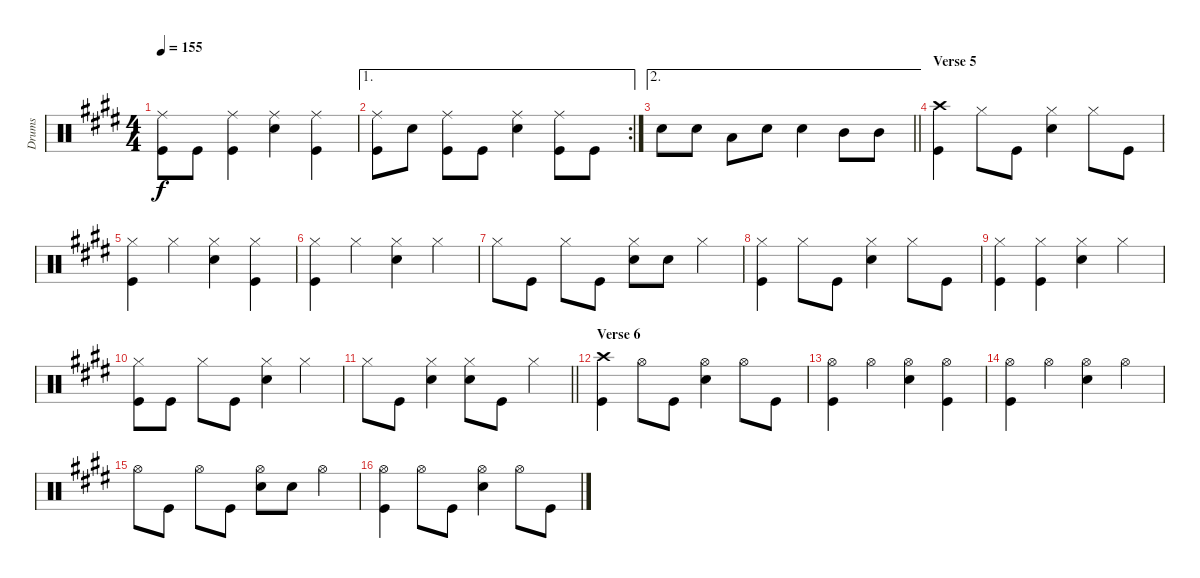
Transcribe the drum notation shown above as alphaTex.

\track ("Drums" "Drums") {instrument percussion}
\staff {score}
\articulation defaults
\ts (4 4)
\tempo 155
\clef neutral
\ks e
("Ride (middle)" "Kick (hit)").8{dy f} "Kick (hit)".8 ("Ride (middle)" "Kick (hit)").4 ("Ride (middle)" "Snare (hit) 2").4 ("Ride (middle)" "Kick (hit)").4 |
\ae 1
\rc 2
("Ride (middle)" "Kick (hit)").8 "Snare (hit) 2".8 ("Ride (middle)" "Kick (hit)").8 "Kick (hit)".8 ("Ride (middle)" "Snare (hit) 2").4 ("Ride (middle)" "Kick (hit)").8 "Kick (hit)".8 |
\ae 2
\barLineRight lightlight "Snare (hit) 2".8 "Snare (hit) 2".8 "Low Tom (hit)".8 "Snare (hit) 2".8 "Snare (hit) 2".4 "Mid Tom (hit)".8 "Mid Tom (hit)".8
|
\section ("" "Verse 5")
("Crash high (hit)" "Kick (hit)").4 "Hi-Hat (closed)".8 "Kick (hit)".8 ("Hi-Hat (closed)" "Snare (hit) 2").4 "Hi-Hat (closed)".8 "Kick (hit)".8 |
("Hi-Hat (closed)" "Kick (hit)").4 "Hi-Hat (closed)".4 ("Hi-Hat (closed)" "Snare (hit) 2").4 ("Hi-Hat (closed)" "Kick (hit)").4 |
("Hi-Hat (closed)" "Kick (hit)").4 "Hi-Hat (closed)".4 ("Hi-Hat (closed)" "Snare (hit) 2").4 "Hi-Hat (closed)".4 |
"Hi-Hat (closed)".8 "Kick (hit)".8 "Hi-Hat (closed)".8 "Kick (hit)".8 ("Hi-Hat (closed)" "Snare (hit) 2").8 "Snare (hit) 2".8 "Hi-Hat (closed)".4 |
("Hi-Hat (closed)" "Kick (hit)").4 "Hi-Hat (closed)".8 "Kick (hit)".8 ("Hi-Hat (closed)" "Snare (hit) 2").4 "Hi-Hat (closed)".8 "Kick (hit)".8 |
("Hi-Hat (closed)" "Kick (hit)").4 ("Hi-Hat (closed)" "Kick (hit)").4 ("Hi-Hat (closed)" "Snare (hit) 2").4 "Hi-Hat (closed)".4 |
("Hi-Hat (closed)" "Kick (hit)").8 "Kick (hit)".8 "Hi-Hat (closed)".8 "Kick (hit)".8 ("Hi-Hat (closed)" "Snare (hit) 2").4 "Hi-Hat (closed)".4 |
\barLineRight lightlight "Hi-Hat (closed)".8 "Kick (hit)".8
("Hi-Hat (closed)" "Snare (hit) 2").4 ("Hi-Hat (closed)" "Snare (hit) 2").8 "Kick (hit)".8 "Hi-Hat (closed)".4 |
\section ("" "Verse 6")
("Crash high (hit)" "Kick (hit)").4 "Hi-Hat (open)".8 "Kick (hit)".8 ("Hi-Hat (open)" "Snare (hit) 2").4 "Hi-Hat (open)".8 "Kick (hit)".8 |
("Hi-Hat (open)" "Kick (hit)").4 "Hi-Hat (open)".4 ("Hi-Hat (open)" "Snare (hit) 2").4 ("Hi-Hat (open)" "Kick (hit)").4 |
("Hi-Hat (open)" "Kick (hit)").4 "Hi-Hat (open)".4 ("Hi-Hat (open)" "Snare (hit) 2").4 "Hi-Hat (open)".4 |
"Hi-Hat (open)".8 "Kick (hit)".8 "Hi-Hat (open)".8 "Kick (hit)".8 ("Hi-Hat (open)" "Snare (hit) 2").8 "Snare (hit) 2".8 "Hi-Hat (open)".4 |
("Hi-Hat (open)" "Kick (hit)").4 "Hi-Hat (open)".8 "Kick (hit)".8 ("Hi-Hat (open)" "Snare (hit) 2").4 "Hi-Hat (open)".8 "Kick (hit)".8
